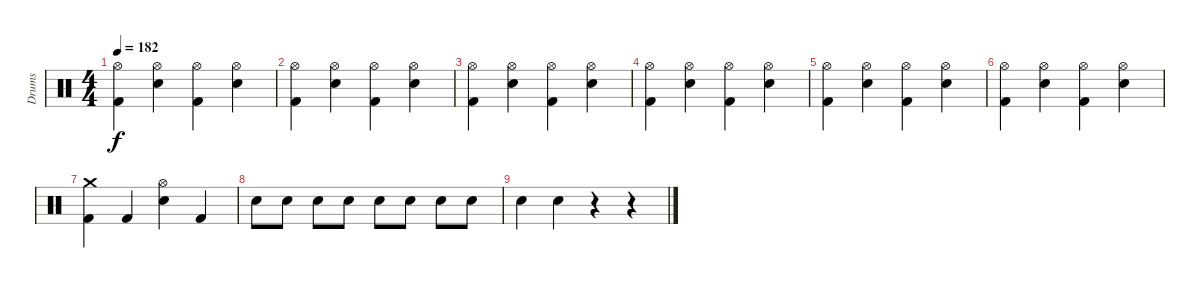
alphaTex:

\track ("Drums" "Drums") {instrument percussion}
\staff {score}
\articulation defaults
\ts (4 4)
\tempo 182
\clef neutral
\ks c
("Hi-Hat (open)" "Kick (hit) 2").4{dy f} ("Hi-Hat (open)" "Snare (hit) 2").4 ("Hi-Hat (open)" "Kick (hit) 2").4 ("Hi-Hat (open)" "Snare (hit) 2").4 |
("Hi-Hat (open)" "Kick (hit) 2").4 ("Hi-Hat (open)" "Snare (hit) 2").4 ("Hi-Hat (open)" "Kick (hit) 2").4 ("Hi-Hat (open)" "Snare (hit) 2").4 |
("Hi-Hat (open)" "Kick (hit) 2").4 ("Hi-Hat (open)" "Snare (hit) 2").4 ("Hi-Hat (open)" "Kick (hit) 2").4 ("Hi-Hat (open)" "Snare (hit) 2").4 |
("Hi-Hat (open)" "Kick (hit) 2").4 ("Hi-Hat (open)" "Snare (hit) 2").4 ("Hi-Hat (open)" "Kick (hit) 2").4 ("Hi-Hat (open)" "Snare (hit) 2").4 |
("Hi-Hat (open)" "Kick (hit) 2").4 ("Hi-Hat (open)" "Snare (hit) 2").4 ("Hi-Hat (open)" "Kick (hit) 2").4 ("Hi-Hat (open)" "Snare (hit) 2").4 |
("Hi-Hat (open)" "Kick (hit) 2").4 ("Hi-Hat (open)" "Snare (hit) 2").4 ("Hi-Hat (open)" "Kick (hit) 2").4 ("Hi-Hat (open)" "Snare (hit) 2").4 |
("Crash medium (hit)" "Kick (hit) 2").4 "Kick (hit) 2".4 ("Hi-Hat (open)" "Snare (hit) 2").4 "Kick (hit) 2".4 |
"Snare (hit) 2".8 "Snare (hit) 2".8 "Snare (hit) 2".8 "Snare (hit) 2".8 "Snare (hit) 2".8 "Snare (hit) 2".8 "Snare (hit) 2".8 "Snare (hit) 2".8 |
"Snare (hit) 2".4 "Snare (hit) 2".4 r.4 r.4
